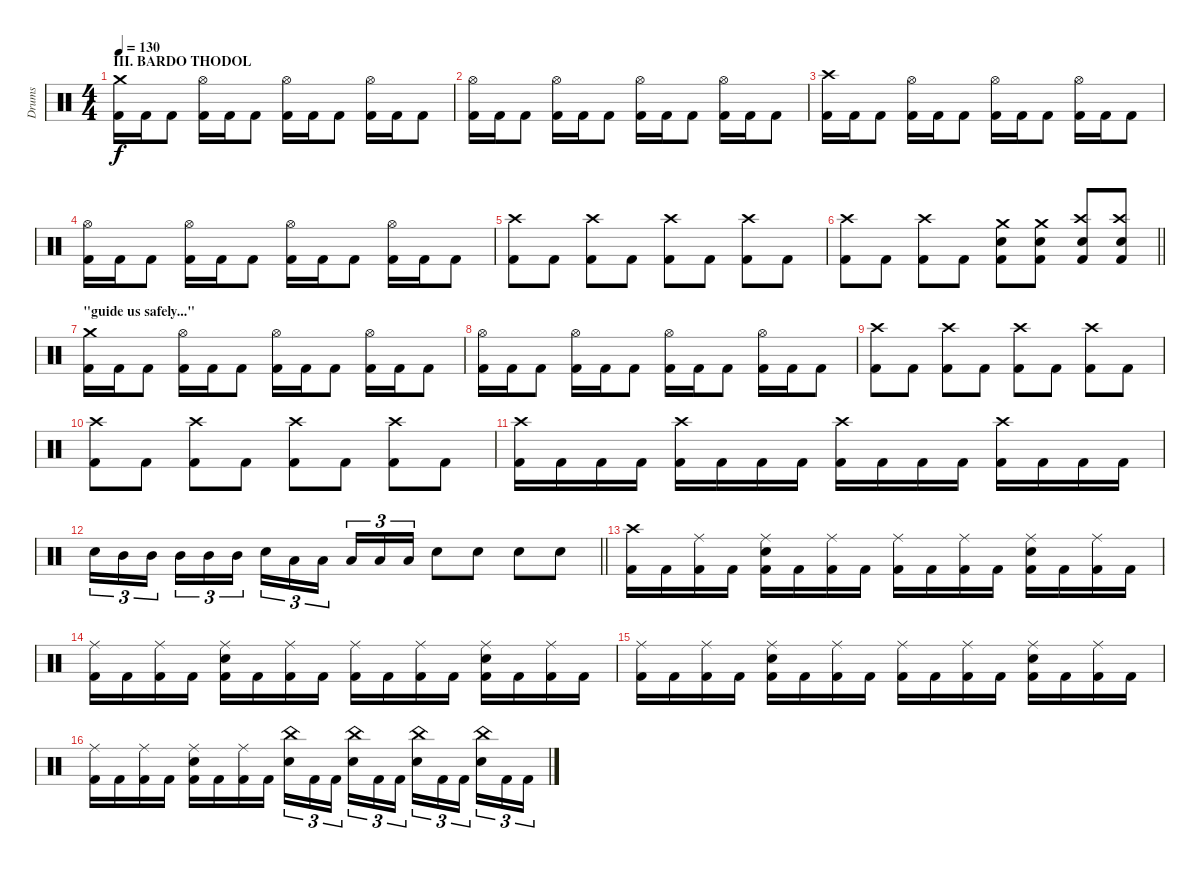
\track ("Drums" "Drums") {instrument percussion}
\staff {score}
\articulation defaults
\ts (4 4)
\section ("" "III. BARDO THODOL")
\tempo 130
\clef neutral
\ks c
("Crash medium (hit)" "Kick (hit) 2").16{dy f} "Kick (hit) 2".16 "Kick (hit) 2".8 ("Hi-Hat (open)" "Kick (hit) 2").16 "Kick (hit) 2".16 "Kick (hit) 2".8 ("Hi-Hat (open)" "Kick (hit) 2").16 "Kick (hit) 2".16 "Kick (hit) 2".8 ("Hi-Hat (open)" "Kick (hit) 2").16 "Kick (hit) 2".16 "Kick (hit) 2".8 |
("Hi-Hat (open)" "Kick (hit) 2").16 "Kick (hit) 2".16 "Kick (hit) 2".8 ("Hi-Hat (open)" "Kick (hit) 2").16 "Kick (hit) 2".16 "Kick (hit) 2".8 ("Hi-Hat (open)" "Kick (hit) 2").16 "Kick (hit) 2".16 "Kick (hit) 2".8 ("Hi-Hat (open)" "Kick (hit) 2").16 "Kick (hit) 2".16 "Kick (hit) 2".8 |
("Crash high (hit)" "Kick (hit) 2").16 "Kick (hit) 2".16 "Kick (hit) 2".8 ("Hi-Hat (open)" "Kick (hit) 2").16 "Kick (hit) 2".16 "Kick (hit) 2".8 ("Hi-Hat (open)" "Kick (hit) 2").16 "Kick (hit) 2".16 "Kick (hit) 2".8 ("Hi-Hat (open)" "Kick (hit) 2").16 "Kick (hit) 2".16 "Kick (hit) 2".8 |
("Hi-Hat (open)" "Kick (hit) 2").16 "Kick (hit) 2".16 "Kick (hit) 2".8 ("Hi-Hat (open)" "Kick (hit) 2").16 "Kick (hit) 2".16 "Kick (hit) 2".8 ("Hi-Hat (open)" "Kick (hit) 2").16 "Kick (hit) 2".16 "Kick (hit) 2".8 ("Hi-Hat (open)" "Kick (hit) 2").16 "Kick (hit) 2".16 "Kick (hit) 2".8 |
("Crash high (hit)" "Kick (hit) 2").8 "Kick (hit) 2".8 ("Crash high (hit)" "Kick (hit) 2").8 "Kick (hit) 2".8 ("Crash high (hit)" "Kick (hit) 2").8 "Kick (hit) 2".8 ("Crash high (hit)" "Kick (hit) 2").8 "Kick (hit) 2".8 |
\barLineRight lightlight
("Crash high (hit)" "Kick (hit) 2").8 "Kick (hit) 2".8 ("Crash high (hit)" "Kick (hit) 2").8 "Kick (hit) 2".8 ("Crash medium (hit)" "Snare (hit) 2" "Kick (hit) 2").8 ("Crash medium (hit)" "Snare (hit) 2" "Kick (hit) 2").8 ("Crash high (hit)" "Snare (hit) 2" "Kick (hit) 2").8 ("Crash high (hit)" "Snare (hit) 2" "Kick (hit) 2").8 |
\section ("" "\"guide us safely...\"")
("Crash medium (hit)" "Kick (hit) 2").16 "Kick (hit) 2".16 "Kick (hit) 2".8 ("Hi-Hat (open)" "Kick (hit) 2").16 "Kick (hit) 2".16 "Kick (hit) 2".8 ("Hi-Hat (open)" "Kick (hit) 2").16 "Kick (hit) 2".16 "Kick (hit) 2".8 ("Hi-Hat (open)" "Kick (hit) 2").16 "Kick (hit) 2".16 "Kick (hit) 2".8 |
("Hi-Hat (open)" "Kick (hit) 2").16 "Kick (hit) 2".16 "Kick (hit) 2".8 ("Hi-Hat (open)" "Kick (hit) 2").16 "Kick (hit) 2".16 "Kick (hit) 2".8 ("Hi-Hat (open)" "Kick (hit) 2").16 "Kick (hit) 2".16 "Kick (hit) 2".8 ("Hi-Hat (open)" "Kick (hit) 2").16 "Kick (hit) 2".16 "Kick (hit) 2".8 |
("Crash high (hit)" "Kick (hit) 2").8 "Kick (hit) 2".8 ("Crash high (hit)" "Kick (hit) 2").8 "Kick (hit) 2".8 ("Crash high (hit)" "Kick (hit) 2").8 "Kick (hit) 2".8 ("Crash high (hit)" "Kick (hit) 2").8 "Kick (hit) 2".8 |
("Crash high (hit)" "Kick (hit) 2").8 "Kick (hit) 2".8 ("Crash high (hit)" "Kick (hit) 2").8 "Kick (hit) 2".8 ("Crash high (hit)" "Kick (hit) 2").8 "Kick (hit) 2".8 ("Crash high (hit)" "Kick (hit) 2").8 "Kick (hit) 2".8 |
("Crash high (hit)" "Kick (hit) 2").16 "Kick (hit) 2".16 "Kick (hit) 2".16 "Kick (hit) 2".16 ("Crash high (hit)" "Kick (hit) 2").16 "Kick (hit) 2".16 "Kick (hit) 2".16 "Kick (hit) 2".16 ("Crash high (hit)" "Kick (hit) 2").16 "Kick (hit) 2".16 "Kick (hit) 2".16 "Kick (hit) 2".16 ("Crash high (hit)" "Kick (hit) 2").16 "Kick (hit) 2".16 "Kick (hit) 2".16 "Kick (hit) 2".16 |
\barLineRight lightlight "Snare (hit) 2".16{tu (3 2)} "Mid Tom (hit)".16{tu (3 2)} "Mid Tom (hit)".16{tu (3 2)} "Mid Tom (hit)".16{tu (3 2)} "Mid Tom (hit)".16{tu (3 2)} "Mid Tom (hit)".16{tu (3 2)} "Snare (hit) 2".16{tu (3 2)} "Low Tom (hit)".16{tu (3 2)} "Low Tom (hit)".16{tu (3 2)} "Low Tom (hit)".16{tu (3 2)} "Low Tom (hit)".16{tu (3 2)} "Low Tom (hit)".16{tu (3 2)} "Snare (hit) 2".8 "Snare (hit) 2".8 "Snare (hit) 2".8 "Snare (hit) 2".8
|
\section ("" "")
("Crash high (hit)" "Kick (hit) 2").16 "Kick (hit) 2".16 ("Ride (middle)" "Kick (hit) 2").16 "Kick (hit) 2".16 ("Ride (middle)" "Snare (hit) 2" "Kick (hit) 2").16 "Kick (hit) 2".16 ("Ride (middle)" "Kick (hit) 2").16 "Kick (hit) 2".16 ("Ride (middle)" "Kick (hit) 2").16 "Kick (hit) 2".16 ("Ride (middle)" "Kick (hit) 2").16 "Kick (hit) 2".16 ("Ride (middle)" "Snare (hit) 2" "Kick (hit) 2").16 "Kick (hit) 2".16 ("Ride (middle)" "Kick (hit) 2").16 "Kick (hit) 2".16 |
("Ride (middle)" "Kick (hit) 2").16 "Kick (hit) 2".16 ("Ride (middle)" "Kick (hit) 2").16 "Kick (hit) 2".16 ("Ride (middle)" "Snare (hit) 2" "Kick (hit) 2").16 "Kick (hit) 2".16 ("Ride (middle)" "Kick (hit) 2").16 "Kick (hit) 2".16 ("Ride (middle)" "Kick (hit) 2").16 "Kick (hit) 2".16 ("Ride (middle)" "Kick (hit) 2").16 "Kick (hit) 2".16 ("Ride (middle)" "Snare (hit) 2" "Kick (hit) 2").16 "Kick (hit) 2".16 ("Ride (middle)" "Kick (hit) 2").16 "Kick (hit) 2".16 |
("Ride (middle)" "Kick (hit) 2").16 "Kick (hit) 2".16 ("Ride (middle)" "Kick (hit) 2").16 "Kick (hit) 2".16 ("Ride (middle)" "Snare (hit) 2" "Kick (hit) 2").16 "Kick (hit) 2".16 ("Ride (middle)" "Kick (hit) 2").16 "Kick (hit) 2".16 ("Ride (middle)" "Kick (hit) 2").16 "Kick (hit) 2".16 ("Ride (middle)" "Kick (hit) 2").16 "Kick (hit) 2".16 ("Ride (middle)" "Snare (hit) 2" "Kick (hit) 2").16 "Kick (hit) 2".16 ("Ride (middle)" "Kick (hit) 2").16 "Kick (hit) 2".16 |
("Ride (middle)" "Kick (hit) 2").16 "Kick (hit) 2".16 ("Ride (middle)" "Kick (hit) 2").16 "Kick (hit) 2".16 ("Ride (middle)" "Snare (hit) 2" "Kick (hit) 2").16 "Kick (hit) 2".16 ("Ride (middle)" "Kick (hit) 2").16 "Kick (hit) 2".16 ("China (hit)" "Snare (hit) 2").16{tu (3 2)} "Kick (hit) 2".16{tu (3 2)} "Kick (hit) 2".16{tu (3 2)} ("China (hit)" "Snare (hit) 2").16{tu (3 2)} "Kick (hit) 2".16{tu (3 2)} "Kick (hit) 2".16{tu (3 2)} ("China (hit)" "Snare (hit) 2").16{tu (3 2)} "Kick (hit) 2".16{tu (3 2)} "Kick (hit) 2".16{tu (3 2)} ("China (hit)" "Snare (hit) 2").16{tu (3 2)} "Kick (hit) 2".16{tu (3 2)} "Kick (hit) 2".16{tu (3 2)}
